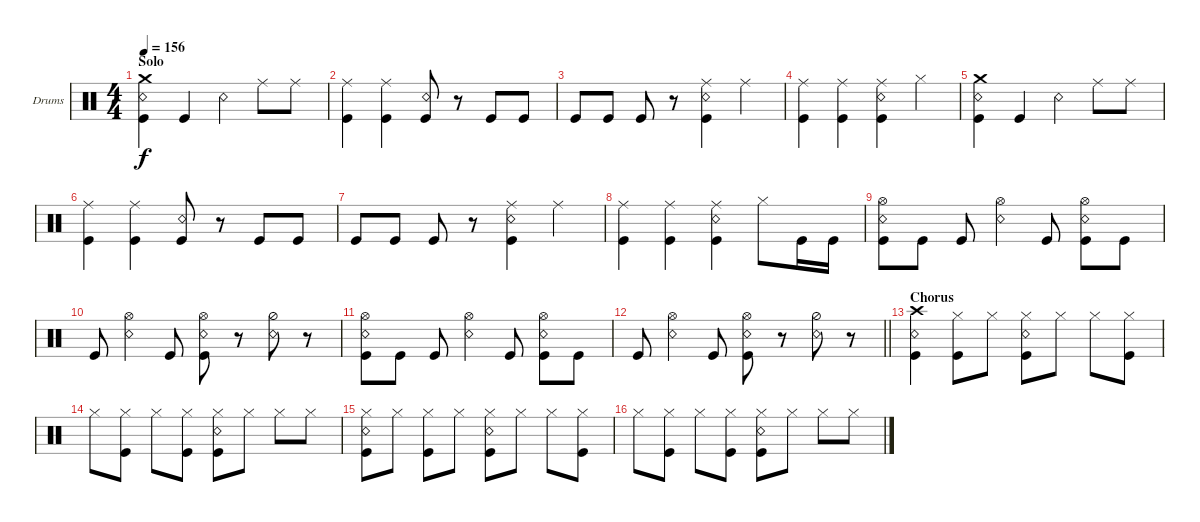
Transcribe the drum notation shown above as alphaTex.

\bracketExtendMode groupsimilarinstruments
\firstSystemTrackNameOrientation horizontal
\otherSystemsTrackNameOrientation horizontal
\track ("Drums" "Drums") {instrument percussion}
\staff {score}
\articulation defaults
\ts (4 4)
\section ("" "Solo")
\tempo 156
\clef neutral
\ks c
("Kick (hit)" "Snare (rim shot)" "Crash medium (hit)").4{dy f} "Kick (hit)".4 "Snare (rim shot)".4 "Ride (middle)".8 "Ride (middle)".8 |
("Ride (middle)" "Kick (hit)").4 ("Ride (middle)" "Kick (hit)").4 ("Snare (rim shot)" "Kick (hit)").8 r.8 "Kick (hit)".8 "Kick (hit)".8 |
"Kick (hit)".8 "Kick (hit)".8 "Kick (hit)".8 r.8 ("Snare (rim shot)" "Ride (middle)" "Kick (hit)").4 "Ride (middle)".4 |
("Ride (middle)" "Kick (hit)").4 ("Ride (middle)" "Kick (hit)").4 ("Snare (rim shot)" "Ride (middle)" "Kick (hit)").4 "Hi-Hat (closed)".4 |
("Kick (hit)" "Snare (rim shot)" "Crash medium (hit)").4 "Kick (hit)".4 "Snare (rim shot)".4 "Ride (middle)".8 "Ride (middle)".8 |
("Ride (middle)" "Kick (hit)").4 ("Ride (middle)" "Kick (hit)").4 ("Snare (rim shot)" "Kick (hit)").8 r.8 "Kick (hit)".8 "Kick (hit)".8 |
"Kick (hit)".8 "Kick (hit)".8 "Kick (hit)".8 r.8 ("Snare (rim shot)" "Ride (middle)" "Kick (hit)").4 "Ride (middle)".4 |
("Ride (middle)" "Kick (hit)").4 ("Ride (middle)" "Kick (hit)").4 ("Snare (rim shot)" "Ride (middle)" "Kick (hit)").4 "Hi-Hat (closed)".8 "Kick (hit)".16 "Kick (hit)".16 |
("Kick (hit)" "Snare (rim shot)" "Hi-Hat (open)").8 "Kick (hit)".8 "Kick (hit)".8 ("Snare (rim shot)" "Hi-Hat (open)").4 "Kick (hit)".8 ("Kick (hit)" "Snare (rim shot)" "Hi-Hat (open)").8 "Kick (hit)".8 |
"Kick (hit)".8 ("Snare (rim shot)" "Hi-Hat (open)").4 "Kick (hit)".8 ("Kick (hit)" "Snare (rim shot)" "Hi-Hat (open)").8 r.8 ("Hi-Hat (half)" "Snare (rim shot)").8 r.8 |
("Kick (hit)" "Snare (rim shot)" "Hi-Hat (open)").8 "Kick (hit)".8 "Kick (hit)".8 ("Snare (rim shot)" "Hi-Hat (open)").4 "Kick (hit)".8 ("Kick (hit)" "Snare (rim shot)" "Hi-Hat (open)").8 "Kick (hit)".8 |
\barLineRight lightlight "Kick (hit)".8
("Snare (rim shot)" "Hi-Hat (open)").4 "Kick (hit)".8 ("Kick (hit)" "Snare (rim shot)" "Hi-Hat (open)").8 r.8 ("Hi-Hat (half)" "Snare (rim shot)").8 r.8 |
\section ("" "Chorus")
("Kick (hit)" "Snare (rim shot)" "Crash high (hit)").4 ("Kick (hit)" "Hi-Hat (closed)").8 "Hi-Hat (closed)".8 ("Kick (hit)" "Snare (rim shot)" "Hi-Hat (closed)").8 "Hi-Hat (closed)".8 "Hi-Hat (closed)".8 ("Kick (hit)" "Hi-Hat (closed)").8 |
"Hi-Hat (closed)".8 ("Kick (hit)" "Hi-Hat (closed)").8 "Hi-Hat (closed)".8 ("Kick (hit)" "Hi-Hat (closed)").8 ("Kick (hit)" "Snare (rim shot)" "Hi-Hat (closed)").8 "Hi-Hat (closed)".8 "Hi-Hat (closed)".8 "Hi-Hat (closed)".8 |
("Kick (hit)" "Snare (rim shot)" "Hi-Hat (closed)").8 "Hi-Hat (closed)".8 ("Kick (hit)" "Hi-Hat (closed)").8 "Hi-Hat (closed)".8 ("Kick (hit)" "Snare (rim shot)" "Hi-Hat (closed)").8 "Hi-Hat (closed)".8 "Hi-Hat (closed)".8 ("Kick (hit)" "Hi-Hat (closed)").8 |
"Hi-Hat (closed)".8 ("Kick (hit)" "Hi-Hat (closed)").8 "Hi-Hat (closed)".8 ("Kick (hit)" "Hi-Hat (closed)").8 ("Kick (hit)" "Snare (rim shot)" "Hi-Hat (closed)").8 "Hi-Hat (closed)".8 "Hi-Hat (closed)".8 "Hi-Hat (closed)".8
